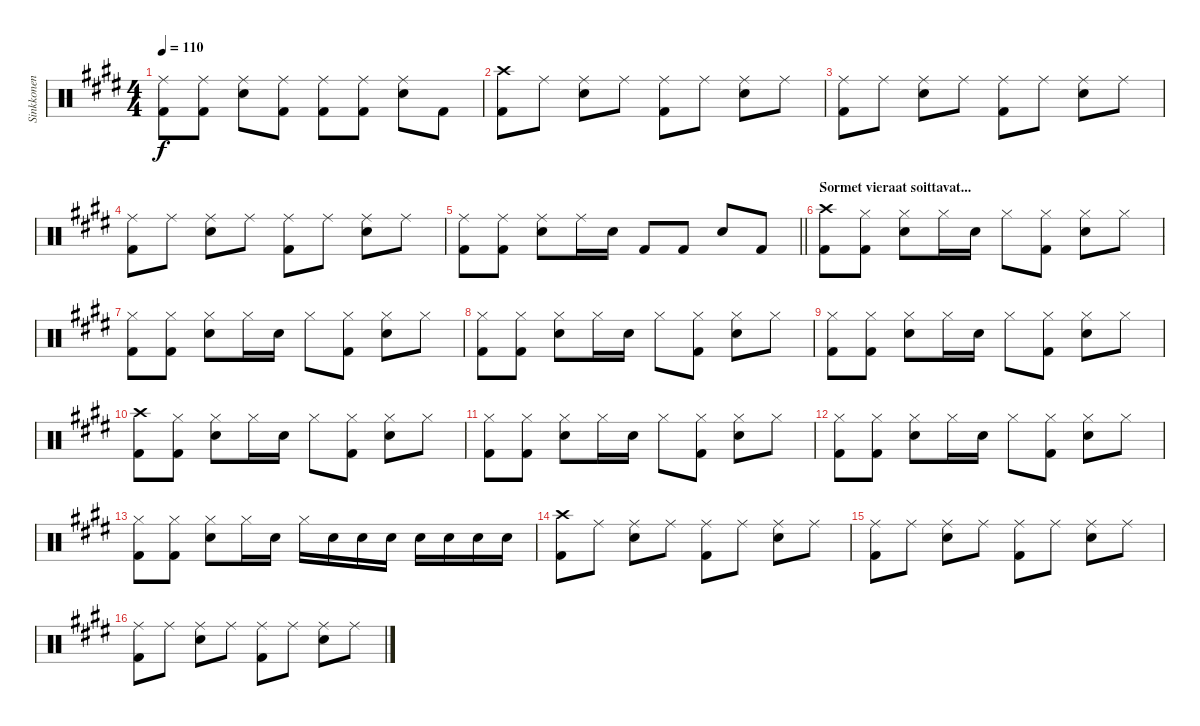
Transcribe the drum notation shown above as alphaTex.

\track ("Sinkkonen" "Sinkkonen") {instrument percussion}
\staff {score}
\articulation defaults
\ts (4 4)
\tempo 110
\clef neutral
\ks c#minor
("Ride (middle)" "Kick (hit) 2").8{dy f} ("Ride (middle)" "Kick (hit) 2").8 ("Ride (middle)" "Snare (hit) 2").8 ("Ride (middle)" "Kick (hit) 2").8 ("Ride (middle)" "Kick (hit) 2").8 ("Ride (middle)" "Kick (hit) 2").8 ("Ride (middle)" "Snare (hit) 2").8 "Kick (hit) 2".8 |
("Crash high (hit)" "Kick (hit) 2").8 "Ride (middle)".8 ("Ride (middle)" "Snare (hit) 2").8 "Ride (middle)".8 ("Ride (middle)" "Kick (hit) 2").8 "Ride (middle)".8 ("Ride (middle)" "Snare (hit) 2").8 "Ride (middle)".8 |
("Ride (middle)" "Kick (hit) 2").8 "Ride (middle)".8 ("Ride (middle)" "Snare (hit) 2").8 "Ride (middle)".8 ("Ride (middle)" "Kick (hit) 2").8 "Ride (middle)".8 ("Ride (middle)" "Snare (hit) 2").8 "Ride (middle)".8 |
("Ride (middle)" "Kick (hit) 2").8 "Ride (middle)".8 ("Ride (middle)" "Snare (hit) 2").8 "Ride (middle)".8 ("Ride (middle)" "Kick (hit) 2").8 "Ride (middle)".8 ("Ride (middle)" "Snare (hit) 2").8 "Ride (middle)".8 |
\barLineRight lightlight
("Ride (middle)" "Kick (hit) 2").8 ("Ride (middle)" "Kick (hit) 2").8 ("Ride (middle)" "Snare (hit) 2").8 "Ride (middle)".16 "Snare (hit) 2".16 "Kick (hit) 2".8 "Kick (hit) 2".8 "Snare (hit) 2".8 "Kick (hit) 2".8 |
\section ("" "Sormet vieraat soittavat...")
("Crash high (hit)" "Kick (hit) 2").8 ("Hi-Hat (closed)" "Kick (hit) 2").8 ("Hi-Hat (closed)" "Snare (hit) 2").8 "Hi-Hat (closed)".16 "Snare (hit) 2".16{volume 9} "Hi-Hat (closed)".8{volume 16} ("Hi-Hat (closed)" "Kick (hit) 2").8 ("Hi-Hat (closed)" "Snare (hit) 2").8 "Hi-Hat (closed)".8 |
("Hi-Hat (closed)" "Kick (hit) 2").8 ("Hi-Hat (closed)" "Kick (hit) 2").8 ("Hi-Hat (closed)" "Snare (hit) 2").8 "Hi-Hat (closed)".16 "Snare (hit) 2".16{volume 9} "Hi-Hat (closed)".8{volume 16} ("Hi-Hat (closed)" "Kick (hit) 2").8 ("Hi-Hat (closed)" "Snare (hit) 2").8 "Hi-Hat (closed)".8 |
("Hi-Hat (closed)" "Kick (hit) 2").8 ("Hi-Hat (closed)" "Kick (hit) 2").8 ("Hi-Hat (closed)" "Snare (hit) 2").8 "Hi-Hat (closed)".16 "Snare (hit) 2".16{volume 9} "Hi-Hat (closed)".8{volume 16} ("Hi-Hat (closed)" "Kick (hit) 2").8 ("Hi-Hat (closed)" "Snare (hit) 2").8 "Hi-Hat (closed)".8 |
("Hi-Hat (closed)" "Kick (hit) 2").8 ("Hi-Hat (closed)" "Kick (hit) 2").8 ("Hi-Hat (closed)" "Snare (hit) 2").8 "Hi-Hat (closed)".16 "Snare (hit) 2".16{volume 9} "Hi-Hat (closed)".8{volume 16} ("Hi-Hat (closed)" "Kick (hit) 2").8 ("Hi-Hat (closed)" "Snare (hit) 2").8 "Hi-Hat (closed)".8 |
("Crash high (hit)" "Kick (hit) 2").8 ("Hi-Hat (closed)" "Kick (hit) 2").8 ("Hi-Hat (closed)" "Snare (hit) 2").8 "Hi-Hat (closed)".16 "Snare (hit) 2".16{volume 9} "Hi-Hat (closed)".8{volume 16} ("Hi-Hat (closed)" "Kick (hit) 2").8 ("Hi-Hat (closed)" "Snare (hit) 2").8 "Hi-Hat (closed)".8 |
("Hi-Hat (closed)" "Kick (hit) 2").8 ("Hi-Hat (closed)" "Kick (hit) 2").8 ("Hi-Hat (closed)" "Snare (hit) 2").8 "Hi-Hat (closed)".16 "Snare (hit) 2".16{volume 9} "Hi-Hat (closed)".8{volume 16} ("Hi-Hat (closed)" "Kick (hit) 2").8 ("Hi-Hat (closed)" "Snare (hit) 2").8 "Hi-Hat (closed)".8 |
("Hi-Hat (closed)" "Kick (hit) 2").8 ("Hi-Hat (closed)" "Kick (hit) 2").8 ("Hi-Hat (closed)" "Snare (hit) 2").8 "Hi-Hat (closed)".16 "Snare (hit) 2".16{volume 9} "Hi-Hat (closed)".8{volume 16} ("Hi-Hat (closed)" "Kick (hit) 2").8 ("Hi-Hat (closed)" "Snare (hit) 2").8 "Hi-Hat (closed)".8 |
("Hi-Hat (closed)" "Kick (hit) 2").8 ("Hi-Hat (closed)" "Kick (hit) 2").8 ("Hi-Hat (closed)" "Snare (hit) 2").8 "Hi-Hat (closed)".16 "Snare (hit) 2".16{volume 9} "Hi-Hat (closed)".16{volume 16} "Snare (hit) 2".16 "Snare (hit) 2".16 "Snare (hit) 2".16 "Snare (hit) 2".16 "Snare (hit) 2".16 "Snare (hit) 2".16 "Snare (hit) 2".16 |
("Crash high (hit)" "Kick (hit) 2").8 "Ride (middle)".8 ("Ride (middle)" "Snare (hit) 2").8 "Ride (middle)".8 ("Ride (middle)" "Kick (hit) 2").8 "Ride (middle)".8 ("Ride (middle)" "Snare (hit) 2").8 "Ride (middle)".8 |
("Ride (middle)" "Kick (hit) 2").8 "Ride (middle)".8 ("Ride (middle)" "Snare (hit) 2").8 "Ride (middle)".8 ("Ride (middle)" "Kick (hit) 2").8 "Ride (middle)".8 ("Ride (middle)" "Snare (hit) 2").8 "Ride (middle)".8 |
("Ride (middle)" "Kick (hit) 2").8 "Ride (middle)".8 ("Ride (middle)" "Snare (hit) 2").8 "Ride (middle)".8 ("Ride (middle)" "Kick (hit) 2").8 "Ride (middle)".8 ("Ride (middle)" "Snare (hit) 2").8 "Ride (middle)".8
